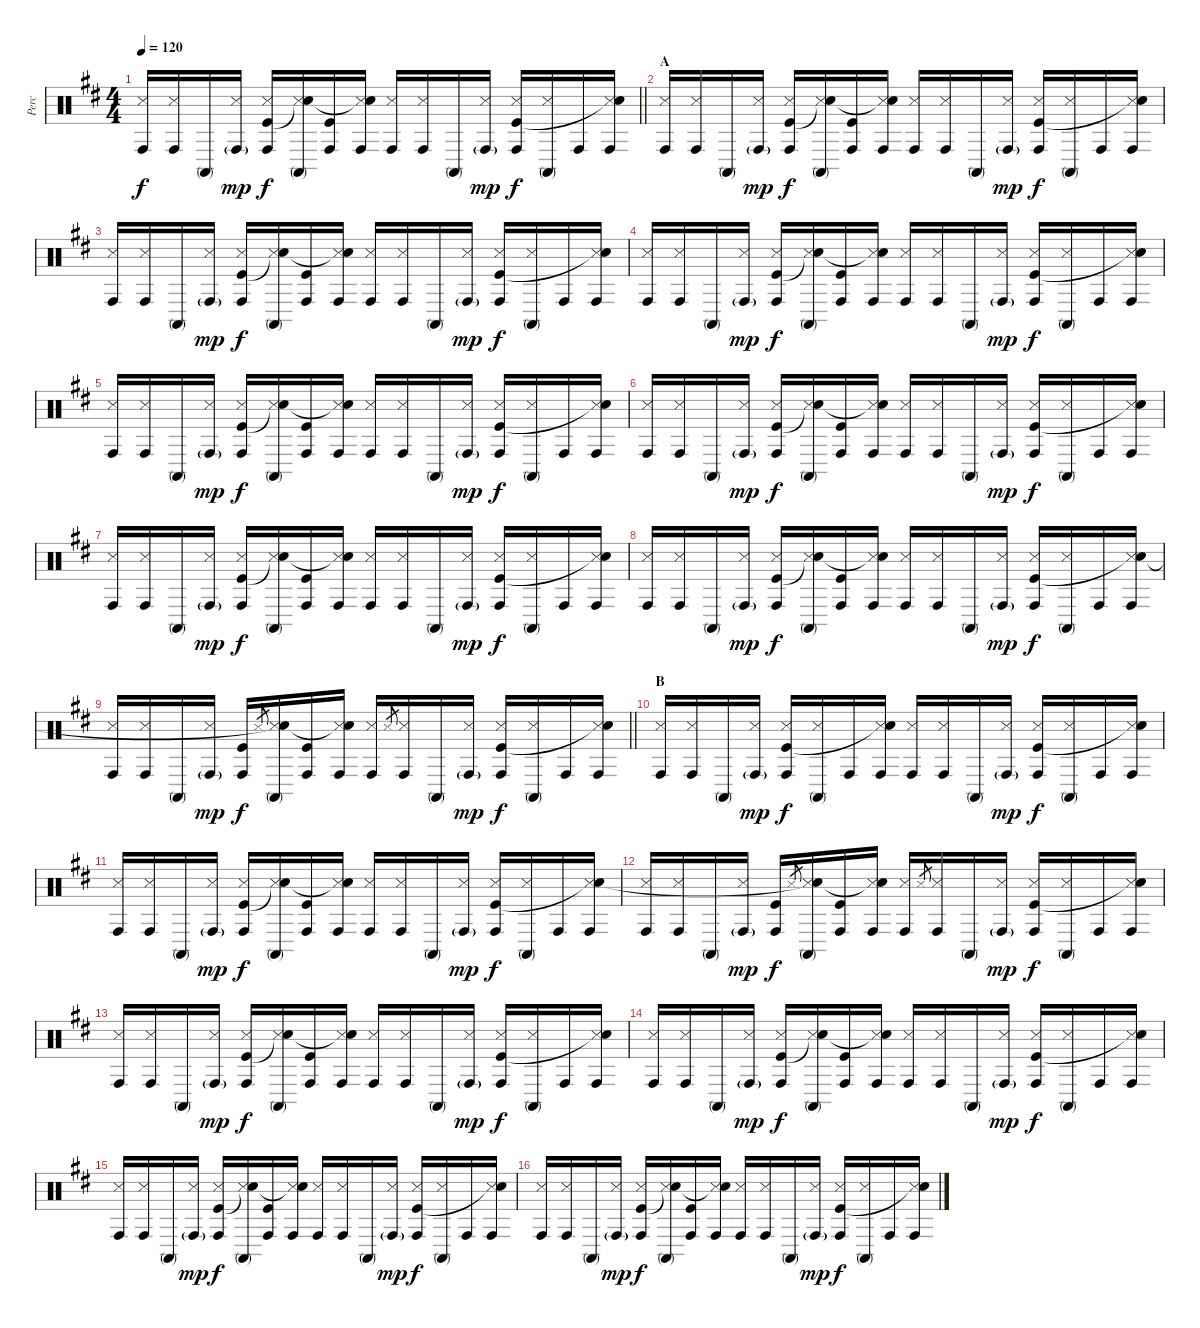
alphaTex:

\track ("Perc" "Perc") {instrument percussion}
\staff {score}
\articulation defaults
\ts (4 4)
\tempo 120
\clef neutral
\barLineRight lightlight
\ks d
("Conga high (hit)" "Snare (side stick) 3").16{dy f} ("Conga high (hit)" "Snare (side stick) 3").16 "Conga high (mute)".16 ("Conga high (hit)"{g} "Snare (side stick) 3").16{dy mp} ("Conga high (hit)" "Snare (side stick) 3" "Kick (hit)").16{dy f} ("Conga high (mute)" "Snare (side stick) 3" "Snare (hit)"{t}).16 ("Conga high (hit)" "Kick (hit)").16 ("Conga high (hit)" "Snare (side stick) 3" "Snare (hit)"{t}).16 ("Conga high (hit)" "Snare (side stick) 3").16 ("Conga high (hit)" "Snare (side stick) 3").16 "Conga high (mute)".16 ("Conga high (hit)"{g} "Snare (side stick) 3").16{dy mp} ("Conga high (hit)" "Snare (side stick) 3" "Kick (hit)").16{dy f} ("Conga high (mute)" "Snare (side stick) 3").16 "Conga high (hit)".16 ("Conga high (hit)" "Snare (side stick) 3" "Snare (hit)"{t}).16 |
\section ("" "A")
("Conga high (hit)" "Snare (side stick) 3").16 ("Conga high (hit)" "Snare (side stick) 3").16 "Conga high (mute)".16 ("Conga high (hit)"{g} "Snare (side stick) 3").16{dy mp} ("Conga high (hit)" "Snare (side stick) 3" "Kick (hit)").16{dy f} ("Conga high (mute)" "Snare (side stick) 3" "Snare (hit)"{t}).16 ("Conga high (hit)" "Kick (hit)").16 ("Conga high (hit)" "Snare (side stick) 3" "Snare (hit)"{t}).16 ("Conga high (hit)" "Snare (side stick) 3").16 ("Conga high (hit)" "Snare (side stick) 3").16 "Conga high (mute)".16 ("Conga high (hit)"{g} "Snare (side stick) 3").16{dy mp} ("Conga high (hit)" "Snare (side stick) 3" "Kick (hit)").16{dy f} ("Conga high (mute)" "Snare (side stick) 3").16 "Conga high (hit)".16 ("Conga high (hit)" "Snare (side stick) 3" "Snare (hit)"{t}).16 |
("Conga high (hit)" "Snare (side stick) 3").16 ("Conga high (hit)" "Snare (side stick) 3").16 "Conga high (mute)".16 ("Conga high (hit)"{g} "Snare (side stick) 3").16{dy mp} ("Conga high (hit)" "Snare (side stick) 3" "Kick (hit)").16{dy f} ("Conga high (mute)" "Snare (side stick) 3" "Snare (hit)"{t}).16 ("Conga high (hit)" "Kick (hit)").16 ("Conga high (hit)" "Snare (side stick) 3" "Snare (hit)"{t}).16 ("Conga high (hit)" "Snare (side stick) 3").16 ("Conga high (hit)" "Snare (side stick) 3").16 "Conga high (mute)".16 ("Conga high (hit)"{g} "Snare (side stick) 3").16{dy mp} ("Conga high (hit)" "Snare (side stick) 3" "Kick (hit)").16{dy f} ("Conga high (mute)" "Snare (side stick) 3").16 "Conga high (hit)".16 ("Conga high (hit)" "Snare (side stick) 3" "Snare (hit)"{t}).16 |
("Conga high (hit)" "Snare (side stick) 3").16 ("Conga high (hit)" "Snare (side stick) 3").16 "Conga high (mute)".16 ("Conga high (hit)"{g} "Snare (side stick) 3").16{dy mp} ("Conga high (hit)" "Snare (side stick) 3" "Kick (hit)").16{dy f} ("Conga high (mute)" "Snare (side stick) 3" "Snare (hit)"{t}).16 ("Conga high (hit)" "Kick (hit)").16 ("Conga high (hit)" "Snare (side stick) 3" "Snare (hit)"{t}).16 ("Conga high (hit)" "Snare (side stick) 3").16 ("Conga high (hit)" "Snare (side stick) 3").16 "Conga high (mute)".16 ("Conga high (hit)"{g} "Snare (side stick) 3").16{dy mp} ("Conga high (hit)" "Snare (side stick) 3" "Kick (hit)").16{dy f} ("Conga high (mute)" "Snare (side stick) 3").16 "Conga high (hit)".16 ("Conga high (hit)" "Snare (side stick) 3" "Snare (hit)"{t}).16 |
("Conga high (hit)" "Snare (side stick) 3").16 ("Conga high (hit)" "Snare (side stick) 3").16 "Conga high (mute)".16 ("Conga high (hit)"{g} "Snare (side stick) 3").16{dy mp} ("Conga high (hit)" "Snare (side stick) 3" "Kick (hit)").16{dy f} ("Conga high (mute)" "Snare (side stick) 3" "Snare (hit)"{t}).16 ("Conga high (hit)" "Kick (hit)").16 ("Conga high (hit)" "Snare (side stick) 3" "Snare (hit)"{t}).16 ("Conga high (hit)" "Snare (side stick) 3").16 ("Conga high (hit)" "Snare (side stick) 3").16 "Conga high (mute)".16 ("Conga high (hit)"{g} "Snare (side stick) 3").16{dy mp} ("Conga high (hit)" "Snare (side stick) 3" "Kick (hit)").16{dy f} ("Conga high (mute)" "Snare (side stick) 3").16 "Conga high (hit)".16 ("Conga high (hit)" "Snare (side stick) 3" "Snare (hit)"{t}).16 |
("Conga high (hit)" "Snare (side stick) 3").16 ("Conga high (hit)" "Snare (side stick) 3").16 "Conga high (mute)".16 ("Conga high (hit)"{g} "Snare (side stick) 3").16{dy mp} ("Conga high (hit)" "Snare (side stick) 3" "Kick (hit)").16{dy f} ("Conga high (mute)" "Snare (side stick) 3" "Snare (hit)"{t}).16 ("Conga high (hit)" "Kick (hit)").16 ("Conga high (hit)" "Snare (side stick) 3" "Snare (hit)"{t}).16 ("Conga high (hit)" "Snare (side stick) 3").16 ("Conga high (hit)" "Snare (side stick) 3").16 "Conga high (mute)".16 ("Conga high (hit)"{g} "Snare (side stick) 3").16{dy mp} ("Conga high (hit)" "Snare (side stick) 3" "Kick (hit)").16{dy f} ("Conga high (mute)" "Snare (side stick) 3").16 "Conga high (hit)".16 ("Conga high (hit)" "Snare (side stick) 3" "Snare (hit)"{t}).16 |
("Conga high (hit)" "Snare (side stick) 3").16 ("Conga high (hit)" "Snare (side stick) 3").16 "Conga high (mute)".16 ("Conga high (hit)"{g} "Snare (side stick) 3").16{dy mp} ("Conga high (hit)" "Snare (side stick) 3" "Kick (hit)").16{dy f} ("Conga high (mute)" "Snare (side stick) 3" "Snare (hit)"{t}).16 ("Conga high (hit)" "Kick (hit)").16 ("Conga high (hit)" "Snare (side stick) 3" "Snare (hit)"{t}).16 ("Conga high (hit)" "Snare (side stick) 3").16 ("Conga high (hit)" "Snare (side stick) 3").16 "Conga high (mute)".16 ("Conga high (hit)"{g} "Snare (side stick) 3").16{dy mp} ("Conga high (hit)" "Snare (side stick) 3" "Kick (hit)").16{dy f} ("Conga high (mute)" "Snare (side stick) 3").16 "Conga high (hit)".16 ("Conga high (hit)" "Snare (side stick) 3" "Snare (hit)"{t}).16 |
("Conga high (hit)" "Snare (side stick) 3").16 ("Conga high (hit)" "Snare (side stick) 3").16 "Conga high (mute)".16 ("Conga high (hit)"{g} "Snare (side stick) 3").16{dy mp} ("Conga high (hit)" "Snare (side stick) 3" "Kick (hit)").16{dy f} ("Conga high (mute)" "Snare (side stick) 3" "Snare (hit)"{t}).16 ("Conga high (hit)" "Kick (hit)").16 ("Conga high (hit)" "Snare (side stick) 3" "Snare (hit)"{t}).16 ("Conga high (hit)" "Snare (side stick) 3").16 ("Conga high (hit)" "Snare (side stick) 3").16 "Conga high (mute)".16 ("Conga high (hit)"{g} "Snare (side stick) 3").16{dy mp} ("Conga high (hit)" "Snare (side stick) 3" "Kick (hit)").16{dy f} ("Conga high (mute)" "Snare (side stick) 3").16 "Conga high (hit)".16 ("Conga high (hit)" "Snare (side stick) 3" "Snare (hit)"{t}).16 |
\barLineRight lightlight
("Conga high (hit)" "Snare (side stick) 3").16 ("Conga high (hit)" "Snare (side stick) 3").16 "Conga high (mute)".16 ("Conga high (hit)"{g} "Snare (side stick) 3").16{dy mp} ("Conga high (hit)" "Kick (hit)").16{dy f} "Snare (side stick) 3".8{gr} ("Conga high (mute)" "Snare (side stick) 3" "Snare (hit)"{t}).16 ("Conga high (hit)" "Kick (hit)").16 ("Conga high (hit)" "Snare (side stick) 3" "Snare (hit)"{t}).16 ("Conga high (hit)" "Snare (side stick) 3").16 "Snare (side stick) 3".8{gr} ("Conga high (hit)" "Snare (side stick) 3").16 "Conga high (mute)".16 ("Conga high (hit)"{g} "Snare (side stick) 3").16{dy mp} ("Conga high (hit)" "Snare (side stick) 3" "Kick (hit)").16{dy f} ("Conga high (mute)" "Snare (side stick) 3").16 "Conga high (hit)".16 ("Conga high (hit)" "Snare (side stick) 3" "Snare (hit)"{t}).16 |
\section ("" "B")
("Conga high (hit)" "Snare (side stick) 3").16 ("Conga high (hit)" "Snare (side stick) 3").16 "Conga high (mute)".16 ("Conga high (hit)"{g} "Snare (side stick) 3").16{dy mp} ("Conga high (hit)" "Snare (side stick) 3" "Kick (hit)").16{dy f} ("Conga high (mute)" "Snare (side stick) 3").16 "Conga high (hit)".16 ("Conga high (hit)" "Snare (side stick) 3" "Snare (hit)"{t}).16 ("Conga high (hit)" "Snare (side stick) 3").16 ("Conga high (hit)" "Snare (side stick) 3").16 "Conga high (mute)".16 ("Conga high (hit)"{g} "Snare (side stick) 3").16{dy mp} ("Conga high (hit)" "Snare (side stick) 3" "Kick (hit)").16{dy f} ("Conga high (mute)" "Snare (side stick) 3").16 "Conga high (hit)".16 ("Conga high (hit)" "Snare (side stick) 3" "Snare (hit)"{t}).16 |
("Conga high (hit)" "Snare (side stick) 3").16 ("Conga high (hit)" "Snare (side stick) 3").16 "Conga high (mute)".16 ("Conga high (hit)"{g} "Snare (side stick) 3").16{dy mp} ("Conga high (hit)" "Snare (side stick) 3" "Kick (hit)").16{dy f} ("Conga high (mute)" "Snare (side stick) 3" "Snare (hit)"{t}).16 ("Conga high (hit)" "Kick (hit)").16 ("Conga high (hit)" "Snare (side stick) 3" "Snare (hit)"{t}).16 ("Conga high (hit)" "Snare (side stick) 3").16 ("Conga high (hit)" "Snare (side stick) 3").16 "Conga high (mute)".16 ("Conga high (hit)"{g} "Snare (side stick) 3").16{dy mp} ("Conga high (hit)" "Snare (side stick) 3" "Kick (hit)").16{dy f} ("Conga high (mute)" "Snare (side stick) 3").16 "Conga high (hit)".16 ("Conga high (hit)" "Snare (side stick) 3" "Snare (hit)"{t}).16 |
("Conga high (hit)" "Snare (side stick) 3").16 ("Conga high (hit)" "Snare (side stick) 3").16 "Conga high (mute)".16 ("Conga high (hit)"{g} "Snare (side stick) 3").16{dy mp} ("Conga high (hit)" "Kick (hit)").16{dy f} "Snare (side stick) 3".8{gr} ("Conga high (mute)" "Snare (side stick) 3" "Snare (hit)"{t}).16 ("Conga high (hit)" "Kick (hit)").16 ("Conga high (hit)" "Snare (side stick) 3" "Snare (hit)"{t}).16 ("Conga high (hit)" "Snare (side stick) 3").16 "Snare (side stick) 3".8{gr} ("Conga high (hit)" "Snare (side stick) 3").16 "Conga high (mute)".16 ("Conga high (hit)"{g} "Snare (side stick) 3").16{dy mp} ("Conga high (hit)" "Snare (side stick) 3" "Kick (hit)").16{dy f} ("Conga high (mute)" "Snare (side stick) 3").16 "Conga high (hit)".16 ("Conga high (hit)" "Snare (side stick) 3" "Snare (hit)"{t}).16 |
("Conga high (hit)" "Snare (side stick) 3").16 ("Conga high (hit)" "Snare (side stick) 3").16 "Conga high (mute)".16 ("Conga high (hit)"{g} "Snare (side stick) 3").16{dy mp} ("Conga high (hit)" "Snare (side stick) 3" "Kick (hit)").16{dy f} ("Conga high (mute)" "Snare (side stick) 3" "Snare (hit)"{t}).16 ("Conga high (hit)" "Kick (hit)").16 ("Conga high (hit)" "Snare (side stick) 3" "Snare (hit)"{t}).16 ("Conga high (hit)" "Snare (side stick) 3").16 ("Conga high (hit)" "Snare (side stick) 3").16 "Conga high (mute)".16 ("Conga high (hit)"{g} "Snare (side stick) 3").16{dy mp} ("Conga high (hit)" "Snare (side stick) 3" "Kick (hit)").16{dy f} ("Conga high (mute)" "Snare (side stick) 3").16 "Conga high (hit)".16 ("Conga high (hit)" "Snare (side stick) 3" "Snare (hit)"{t}).16 |
("Conga high (hit)" "Snare (side stick) 3").16 ("Conga high (hit)" "Snare (side stick) 3").16 "Conga high (mute)".16 ("Conga high (hit)"{g} "Snare (side stick) 3").16{dy mp} ("Conga high (hit)" "Snare (side stick) 3" "Kick (hit)").16{dy f} ("Conga high (mute)" "Snare (side stick) 3" "Snare (hit)"{t}).16 ("Conga high (hit)" "Kick (hit)").16 ("Conga high (hit)" "Snare (side stick) 3" "Snare (hit)"{t}).16 ("Conga high (hit)" "Snare (side stick) 3").16 ("Conga high (hit)" "Snare (side stick) 3").16 "Conga high (mute)".16 ("Conga high (hit)"{g} "Snare (side stick) 3").16{dy mp} ("Conga high (hit)" "Snare (side stick) 3" "Kick (hit)").16{dy f} ("Conga high (mute)" "Snare (side stick) 3").16 "Conga high (hit)".16 ("Conga high (hit)" "Snare (side stick) 3" "Snare (hit)"{t}).16 |
("Conga high (hit)" "Snare (side stick) 3").16 ("Conga high (hit)" "Snare (side stick) 3").16 "Conga high (mute)".16 ("Conga high (hit)"{g} "Snare (side stick) 3").16{dy mp} ("Conga high (hit)" "Snare (side stick) 3" "Kick (hit)").16{dy f} ("Conga high (mute)" "Snare (side stick) 3" "Snare (hit)"{t}).16 ("Conga high (hit)" "Kick (hit)").16 ("Conga high (hit)" "Snare (side stick) 3" "Snare (hit)"{t}).16 ("Conga high (hit)" "Snare (side stick) 3").16 ("Conga high (hit)" "Snare (side stick) 3").16 "Conga high (mute)".16 ("Conga high (hit)"{g} "Snare (side stick) 3").16{dy mp} ("Conga high (hit)" "Snare (side stick) 3" "Kick (hit)").16{dy f} ("Conga high (mute)" "Snare (side stick) 3").16 "Conga high (hit)".16 ("Conga high (hit)" "Snare (side stick) 3" "Snare (hit)"{t}).16 |
("Conga high (hit)" "Snare (side stick) 3").16 ("Conga high (hit)" "Snare (side stick) 3").16 "Conga high (mute)".16 ("Conga high (hit)"{g} "Snare (side stick) 3").16{dy mp} ("Conga high (hit)" "Snare (side stick) 3" "Kick (hit)").16{dy f} ("Conga high (mute)" "Snare (side stick) 3" "Snare (hit)"{t}).16 ("Conga high (hit)" "Kick (hit)").16 ("Conga high (hit)" "Snare (side stick) 3" "Snare (hit)"{t}).16 ("Conga high (hit)" "Snare (side stick) 3").16 ("Conga high (hit)" "Snare (side stick) 3").16 "Conga high (mute)".16 ("Conga high (hit)"{g} "Snare (side stick) 3").16{dy mp} ("Conga high (hit)" "Snare (side stick) 3" "Kick (hit)").16{dy f} ("Conga high (mute)" "Snare (side stick) 3").16 "Conga high (hit)".16 ("Conga high (hit)" "Snare (side stick) 3" "Snare (hit)"{t}).16
